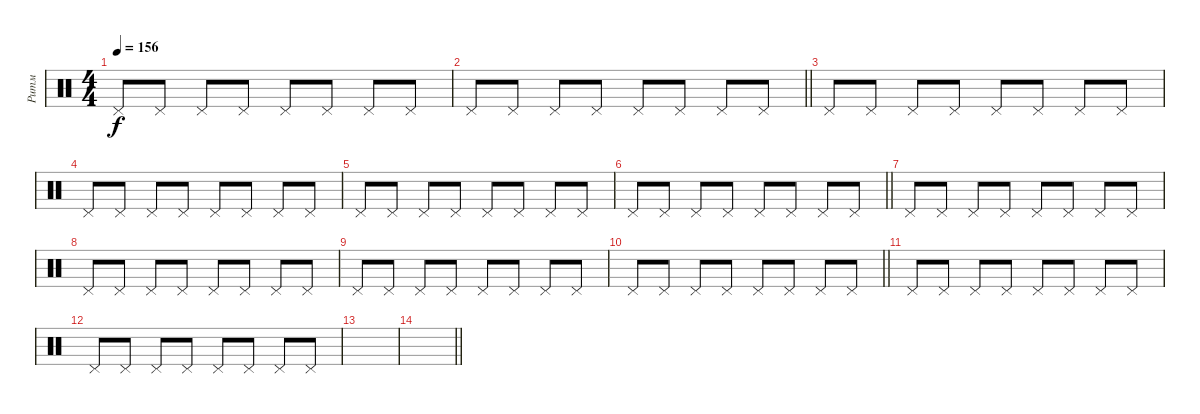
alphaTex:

\track ("Ритм" "Ритм") {instrument percussion}
\staff {score}
\articulation defaults
\ts (4 4)
\tempo 156
\clef neutral
\ks c "Pedal Hi-Hat (hit)".8{dy f} "Pedal Hi-Hat (hit)".8 "Pedal Hi-Hat (hit)".8 "Pedal Hi-Hat (hit)".8 "Pedal Hi-Hat (hit)".8 "Pedal Hi-Hat (hit)".8 "Pedal Hi-Hat (hit)".8 "Pedal Hi-Hat (hit)".8
|
\barLineRight lightlight "Pedal Hi-Hat (hit)".8 "Pedal Hi-Hat (hit)".8 "Pedal Hi-Hat (hit)".8 "Pedal Hi-Hat (hit)".8 "Pedal Hi-Hat (hit)".8 "Pedal Hi-Hat (hit)".8 "Pedal Hi-Hat (hit)".8 "Pedal Hi-Hat (hit)".8
|
"Pedal Hi-Hat (hit)".8 "Pedal Hi-Hat (hit)".8 "Pedal Hi-Hat (hit)".8 "Pedal Hi-Hat (hit)".8 "Pedal Hi-Hat (hit)".8 "Pedal Hi-Hat (hit)".8 "Pedal Hi-Hat (hit)".8 "Pedal Hi-Hat (hit)".8 |
"Pedal Hi-Hat (hit)".8 "Pedal Hi-Hat (hit)".8 "Pedal Hi-Hat (hit)".8 "Pedal Hi-Hat (hit)".8 "Pedal Hi-Hat (hit)".8 "Pedal Hi-Hat (hit)".8 "Pedal Hi-Hat (hit)".8 "Pedal Hi-Hat (hit)".8 |
"Pedal Hi-Hat (hit)".8 "Pedal Hi-Hat (hit)".8 "Pedal Hi-Hat (hit)".8 "Pedal Hi-Hat (hit)".8 "Pedal Hi-Hat (hit)".8 "Pedal Hi-Hat (hit)".8 "Pedal Hi-Hat (hit)".8 "Pedal Hi-Hat (hit)".8 |
\barLineRight lightlight "Pedal Hi-Hat (hit)".8 "Pedal Hi-Hat (hit)".8 "Pedal Hi-Hat (hit)".8 "Pedal Hi-Hat (hit)".8 "Pedal Hi-Hat (hit)".8 "Pedal Hi-Hat (hit)".8 "Pedal Hi-Hat (hit)".8 "Pedal Hi-Hat (hit)".8
|
"Pedal Hi-Hat (hit)".8 "Pedal Hi-Hat (hit)".8 "Pedal Hi-Hat (hit)".8 "Pedal Hi-Hat (hit)".8 "Pedal Hi-Hat (hit)".8 "Pedal Hi-Hat (hit)".8 "Pedal Hi-Hat (hit)".8 "Pedal Hi-Hat (hit)".8 |
"Pedal Hi-Hat (hit)".8 "Pedal Hi-Hat (hit)".8 "Pedal Hi-Hat (hit)".8 "Pedal Hi-Hat (hit)".8 "Pedal Hi-Hat (hit)".8 "Pedal Hi-Hat (hit)".8 "Pedal Hi-Hat (hit)".8 "Pedal Hi-Hat (hit)".8 |
"Pedal Hi-Hat (hit)".8 "Pedal Hi-Hat (hit)".8 "Pedal Hi-Hat (hit)".8 "Pedal Hi-Hat (hit)".8 "Pedal Hi-Hat (hit)".8 "Pedal Hi-Hat (hit)".8 "Pedal Hi-Hat (hit)".8 "Pedal Hi-Hat (hit)".8 |
\barLineRight lightlight "Pedal Hi-Hat (hit)".8 "Pedal Hi-Hat (hit)".8 "Pedal Hi-Hat (hit)".8 "Pedal Hi-Hat (hit)".8 "Pedal Hi-Hat (hit)".8 "Pedal Hi-Hat (hit)".8 "Pedal Hi-Hat (hit)".8 "Pedal Hi-Hat (hit)".8
|
"Pedal Hi-Hat (hit)".8 "Pedal Hi-Hat (hit)".8 "Pedal Hi-Hat (hit)".8 "Pedal Hi-Hat (hit)".8 "Pedal Hi-Hat (hit)".8 "Pedal Hi-Hat (hit)".8 "Pedal Hi-Hat (hit)".8 "Pedal Hi-Hat (hit)".8 |
"Pedal Hi-Hat (hit)".8 "Pedal Hi-Hat (hit)".8 "Pedal Hi-Hat (hit)".8 "Pedal Hi-Hat (hit)".8 "Pedal Hi-Hat (hit)".8 "Pedal Hi-Hat (hit)".8 "Pedal Hi-Hat (hit)".8 "Pedal Hi-Hat (hit)".8 |
|
\barLineRight lightlight
